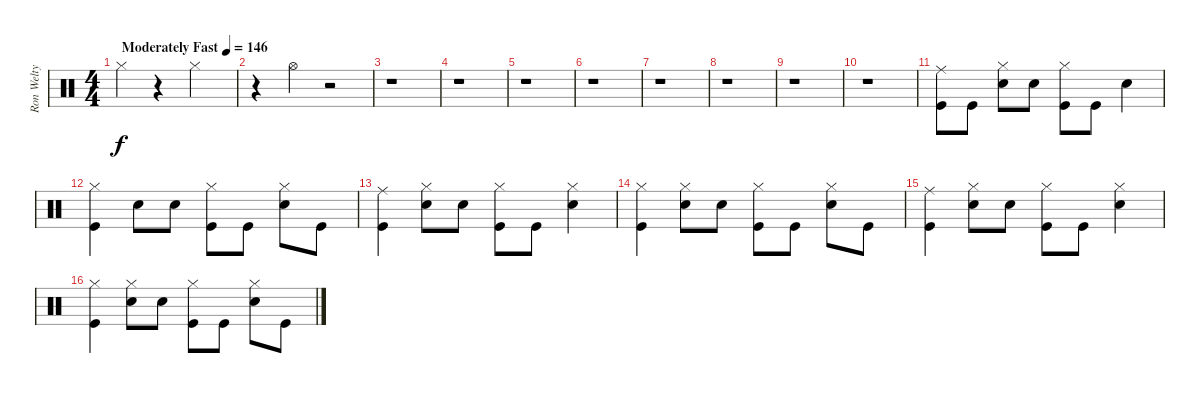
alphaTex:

\track ("Ron Welty" "Ron Welty") {instrument percussion}
\staff {score}
\articulation defaults
\ts (4 4)
\tempo (146 "Moderately Fast")
\clef neutral
\ks c "Hi-Hat (closed)".4{dy f}
r.4 "Hi-Hat (closed)".2 |
r.4 "Hi-Hat (open)".4 r.2 |
r.1 |
r.1 |
r.1 |
r.1 |
r.1 |
r.1 |
r.1 |
r.1 |
("Ride (middle)" "Kick (hit)").8 "Kick (hit)".8 ("Hi-Hat (closed)" "Snare (hit) 2").8 "Snare (hit) 2".8 ("Hi-Hat (closed)" "Kick (hit)").8 "Kick (hit)".8 "Snare (hit) 2".4 |
("Hi-Hat (closed)" "Kick (hit)").4 "Snare (hit) 2".8 "Snare (hit) 2".8 ("Hi-Hat (closed)" "Kick (hit)").8 "Kick (hit)".8 ("Hi-Hat (closed)" "Snare (hit) 2").8 "Kick (hit)".8 |
("Ride (middle)" "Kick (hit)").4 ("Hi-Hat (closed)" "Snare (hit) 2").8 "Snare (hit) 2".8 ("Hi-Hat (closed)" "Kick (hit)").8 "Kick (hit)".8 ("Hi-Hat (closed)" "Snare (hit) 2").4 |
("Hi-Hat (closed)" "Kick (hit)").4 ("Hi-Hat (closed)" "Snare (hit) 2").8 "Snare (hit) 2".8 ("Hi-Hat (closed)" "Kick (hit)").8 "Kick (hit)".8 ("Hi-Hat (closed)" "Snare (hit) 2").8 "Kick (hit)".8 |
("Ride (middle)" "Kick (hit)").4 ("Hi-Hat (closed)" "Snare (hit) 2").8 "Snare (hit) 2".8 ("Hi-Hat (closed)" "Kick (hit)").8 "Kick (hit)".8 ("Hi-Hat (closed)" "Snare (hit) 2").4 |
("Hi-Hat (closed)" "Kick (hit)").4 ("Hi-Hat (closed)" "Snare (hit) 2").8 "Snare (hit) 2".8 ("Hi-Hat (closed)" "Kick (hit)").8 "Kick (hit)".8 ("Hi-Hat (closed)" "Snare (hit) 2").8 "Kick (hit)".8
